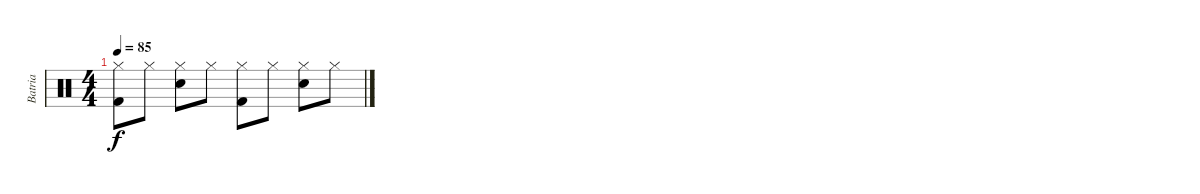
\track ("Batria" "Batria") {instrument percussion}
\staff {score}
\articulation defaults
\ts (4 4)
\tempo 85
\clef neutral
\ks c
("Hi-Hat (closed)" "Kick (hit) 2").8{dy f} "Hi-Hat (closed)".8 ("Hi-Hat (closed)" "Snare (hit) 2").8 "Hi-Hat (closed)".8 ("Hi-Hat (closed)" "Kick (hit) 2").8 "Hi-Hat (closed)".8 ("Hi-Hat (closed)" "Snare (hit) 2").8 "Hi-Hat (closed)".8
